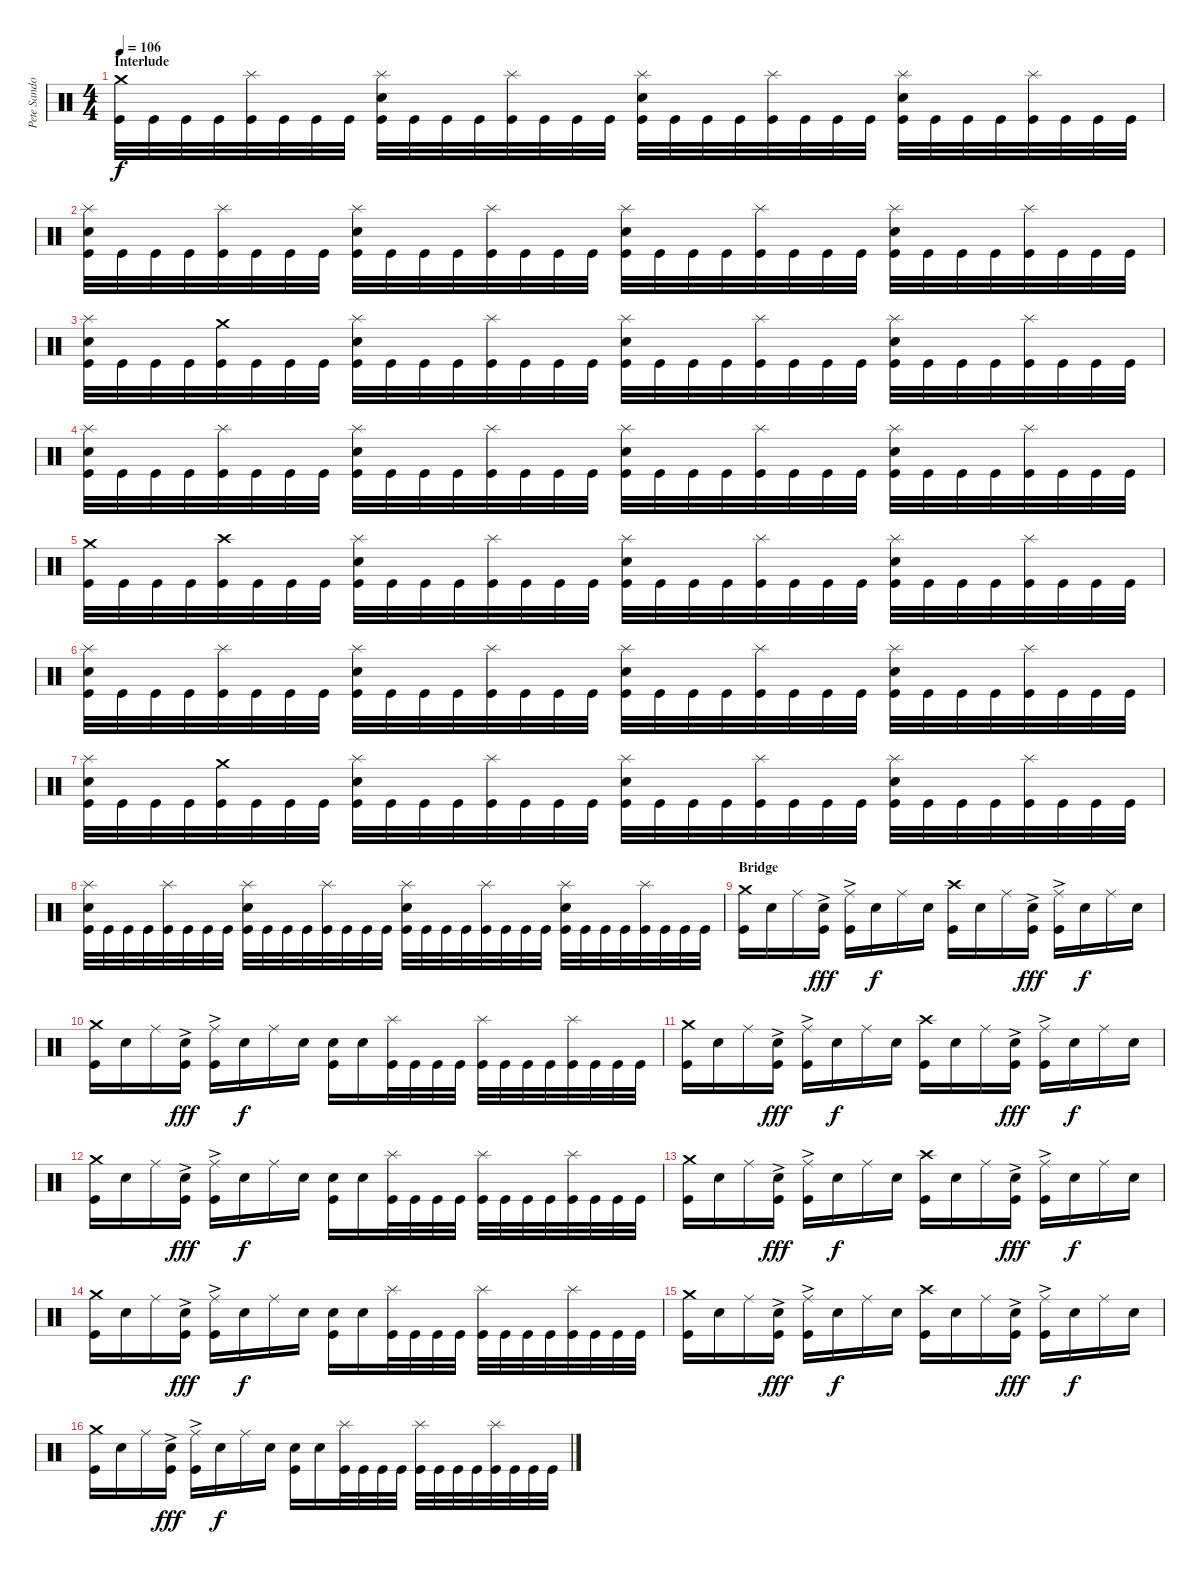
\track ("Pete Sandoval" "Pete Sando") {instrument percussion}
\staff {score}
\articulation defaults
\ts (4 4)
\section ("" "Interlude")
\tempo 106
\clef neutral
\ks c
("Crash medium (hit)" "Kick (hit)").32{dy f} "Kick (hit)".32 "Kick (hit)".32 "Kick (hit)".32 ("Splash (hit)" "Kick (hit)").32 "Kick (hit)".32 "Kick (hit)".32 "Kick (hit)".32 ("Splash (hit)" "Electric Snare (hit)" "Kick (hit)").32 "Kick (hit)".32 "Kick (hit)".32 "Kick (hit)".32 ("Splash (hit)" "Kick (hit)").32 "Kick (hit)".32 "Kick (hit)".32 "Kick (hit)".32 ("Splash (hit)" "Electric Snare (hit)" "Kick (hit)").32 "Kick (hit)".32 "Kick (hit)".32 "Kick (hit)".32 ("Splash (hit)" "Kick (hit)").32 "Kick (hit)".32 "Kick (hit)".32 "Kick (hit)".32 ("Splash (hit)" "Electric Snare (hit)" "Kick (hit)").32 "Kick (hit)".32 "Kick (hit)".32 "Kick (hit)".32 ("Splash (hit)" "Kick (hit)").32 "Kick (hit)".32 "Kick (hit)".32 "Kick (hit)".32 |
("Splash (hit)" "Electric Snare (hit)" "Kick (hit)").32 "Kick (hit)".32 "Kick (hit)".32 "Kick (hit)".32 ("Splash (hit)" "Kick (hit)").32 "Kick (hit)".32 "Kick (hit)".32 "Kick (hit)".32 ("Splash (hit)" "Electric Snare (hit)" "Kick (hit)").32 "Kick (hit)".32 "Kick (hit)".32 "Kick (hit)".32 ("Splash (hit)" "Kick (hit)").32 "Kick (hit)".32 "Kick (hit)".32 "Kick (hit)".32 ("Splash (hit)" "Electric Snare (hit)" "Kick (hit)").32 "Kick (hit)".32 "Kick (hit)".32 "Kick (hit)".32 ("Splash (hit)" "Kick (hit)").32 "Kick (hit)".32 "Kick (hit)".32 "Kick (hit)".32 ("Splash (hit)" "Electric Snare (hit)" "Kick (hit)").32 "Kick (hit)".32 "Kick (hit)".32 "Kick (hit)".32 ("Splash (hit)" "Kick (hit)").32 "Kick (hit)".32 "Kick (hit)".32 "Kick (hit)".32 |
("Splash (hit)" "Electric Snare (hit)" "Kick (hit)").32 "Kick (hit)".32 "Kick (hit)".32 "Kick (hit)".32 ("Crash medium (hit)" "Kick (hit)").32 "Kick (hit)".32 "Kick (hit)".32 "Kick (hit)".32 ("Splash (hit)" "Electric Snare (hit)" "Kick (hit)").32 "Kick (hit)".32 "Kick (hit)".32 "Kick (hit)".32 ("Splash (hit)" "Kick (hit)").32 "Kick (hit)".32 "Kick (hit)".32 "Kick (hit)".32 ("Splash (hit)" "Electric Snare (hit)" "Kick (hit)").32 "Kick (hit)".32 "Kick (hit)".32 "Kick (hit)".32 ("Splash (hit)" "Kick (hit)").32 "Kick (hit)".32 "Kick (hit)".32 "Kick (hit)".32 ("Splash (hit)" "Electric Snare (hit)" "Kick (hit)").32 "Kick (hit)".32 "Kick (hit)".32 "Kick (hit)".32 ("Splash (hit)" "Kick (hit)").32 "Kick (hit)".32 "Kick (hit)".32 "Kick (hit)".32 |
("Splash (hit)" "Electric Snare (hit)" "Kick (hit)").32 "Kick (hit)".32 "Kick (hit)".32 "Kick (hit)".32 ("Splash (hit)" "Kick (hit)").32 "Kick (hit)".32 "Kick (hit)".32 "Kick (hit)".32 ("Splash (hit)" "Electric Snare (hit)" "Kick (hit)").32 "Kick (hit)".32 "Kick (hit)".32 "Kick (hit)".32 ("Splash (hit)" "Kick (hit)").32 "Kick (hit)".32 "Kick (hit)".32 "Kick (hit)".32 ("Splash (hit)" "Electric Snare (hit)" "Kick (hit)").32 "Kick (hit)".32 "Kick (hit)".32 "Kick (hit)".32 ("Splash (hit)" "Kick (hit)").32 "Kick (hit)".32 "Kick (hit)".32 "Kick (hit)".32 ("Splash (hit)" "Electric Snare (hit)" "Kick (hit)").32 "Kick (hit)".32 "Kick (hit)".32 "Kick (hit)".32 ("Splash (hit)" "Kick (hit)").32 "Kick (hit)".32 "Kick (hit)".32 "Kick (hit)".32 |
("Crash medium (hit)" "Kick (hit)").32 "Kick (hit)".32 "Kick (hit)".32 "Kick (hit)".32 ("Crash high (hit)" "Kick (hit)").32 "Kick (hit)".32 "Kick (hit)".32 "Kick (hit)".32 ("Splash (hit)" "Electric Snare (hit)" "Kick (hit)").32 "Kick (hit)".32 "Kick (hit)".32 "Kick (hit)".32 ("Splash (hit)" "Kick (hit)").32 "Kick (hit)".32 "Kick (hit)".32 "Kick (hit)".32 ("Splash (hit)" "Electric Snare (hit)" "Kick (hit)").32 "Kick (hit)".32 "Kick (hit)".32 "Kick (hit)".32 ("Splash (hit)" "Kick (hit)").32 "Kick (hit)".32 "Kick (hit)".32 "Kick (hit)".32 ("Splash (hit)" "Electric Snare (hit)" "Kick (hit)").32 "Kick (hit)".32 "Kick (hit)".32 "Kick (hit)".32 ("Splash (hit)" "Kick (hit)").32 "Kick (hit)".32 "Kick (hit)".32 "Kick (hit)".32 |
("Splash (hit)" "Electric Snare (hit)" "Kick (hit)").32 "Kick (hit)".32 "Kick (hit)".32 "Kick (hit)".32 ("Splash (hit)" "Kick (hit)").32 "Kick (hit)".32 "Kick (hit)".32 "Kick (hit)".32 ("Splash (hit)" "Electric Snare (hit)" "Kick (hit)").32 "Kick (hit)".32 "Kick (hit)".32 "Kick (hit)".32 ("Splash (hit)" "Kick (hit)").32 "Kick (hit)".32 "Kick (hit)".32 "Kick (hit)".32 ("Splash (hit)" "Electric Snare (hit)" "Kick (hit)").32 "Kick (hit)".32 "Kick (hit)".32 "Kick (hit)".32 ("Splash (hit)" "Kick (hit)").32 "Kick (hit)".32 "Kick (hit)".32 "Kick (hit)".32 ("Splash (hit)" "Electric Snare (hit)" "Kick (hit)").32 "Kick (hit)".32 "Kick (hit)".32 "Kick (hit)".32 ("Splash (hit)" "Kick (hit)").32 "Kick (hit)".32 "Kick (hit)".32 "Kick (hit)".32 |
("Splash (hit)" "Electric Snare (hit)" "Kick (hit)").32 "Kick (hit)".32 "Kick (hit)".32 "Kick (hit)".32 ("Crash medium (hit)" "Kick (hit)").32 "Kick (hit)".32 "Kick (hit)".32 "Kick (hit)".32 ("Splash (hit)" "Electric Snare (hit)" "Kick (hit)").32 "Kick (hit)".32 "Kick (hit)".32 "Kick (hit)".32 ("Splash (hit)" "Kick (hit)").32 "Kick (hit)".32 "Kick (hit)".32 "Kick (hit)".32 ("Splash (hit)" "Electric Snare (hit)" "Kick (hit)").32 "Kick (hit)".32 "Kick (hit)".32 "Kick (hit)".32 ("Splash (hit)" "Kick (hit)").32 "Kick (hit)".32 "Kick (hit)".32 "Kick (hit)".32 ("Splash (hit)" "Electric Snare (hit)" "Kick (hit)").32 "Kick (hit)".32 "Kick (hit)".32 "Kick (hit)".32 ("Splash (hit)" "Kick (hit)").32 "Kick (hit)".32 "Kick (hit)".32 "Kick (hit)".32 |
("Splash (hit)" "Electric Snare (hit)" "Kick (hit)").32 "Kick (hit)".32 "Kick (hit)".32 "Kick (hit)".32 ("Splash (hit)" "Kick (hit)").32 "Kick (hit)".32 "Kick (hit)".32 "Kick (hit)".32 ("Splash (hit)" "Electric Snare (hit)" "Kick (hit)").32 "Kick (hit)".32 "Kick (hit)".32 "Kick (hit)".32 ("Splash (hit)" "Kick (hit)").32 "Kick (hit)".32 "Kick (hit)".32 "Kick (hit)".32 ("Splash (hit)" "Electric Snare (hit)" "Kick (hit)").32 "Kick (hit)".32 "Kick (hit)".32 "Kick (hit)".32 ("Splash (hit)" "Kick (hit)").32 "Kick (hit)".32 "Kick (hit)".32 "Kick (hit)".32 ("Splash (hit)" "Electric Snare (hit)" "Kick (hit)").32 "Kick (hit)".32 "Kick (hit)".32 "Kick (hit)".32 ("Splash (hit)" "Kick (hit)").32 "Kick (hit)".32 "Kick (hit)".32 "Kick (hit)".32 |
\section ("" "Bridge")
("Crash medium (hit)" "Kick (hit)").16 "Electric Snare (hit)".16 "Ride (middle)".16 ("Electric Snare (hit)" "Kick (hit)"{ac}).16{dy fff} ("Ride (middle)" "Kick (hit)"{ac}).16 "Electric Snare (hit)".16{dy f} "Ride (middle)".16 "Electric Snare (hit)".16 ("Crash high (hit)" "Kick (hit)").16 "Electric Snare (hit)".16 "Ride (middle)".16 ("Electric Snare (hit)" "Kick (hit)"{ac}).16{dy fff} ("Ride (middle)" "Kick (hit)"{ac}).16 "Electric Snare (hit)".16{dy f} "Ride (middle)".16 "Electric Snare (hit)".16 |
("Crash medium (hit)" "Kick (hit)").16 "Electric Snare (hit)".16 "Ride (middle)".16 ("Electric Snare (hit)" "Kick (hit)"{ac}).16{dy fff} ("Ride (middle)" "Kick (hit)"{ac}).16 "Electric Snare (hit)".16{dy f} "Ride (middle)".16 "Electric Snare (hit)".16 ("Electric Snare (hit)" "Kick (hit)").16 "Electric Snare (hit)".16 ("Splash (hit)" "Kick (hit)").32 "Kick (hit)".32 "Kick (hit)".32 "Kick (hit)".32 ("Splash (hit)" "Kick (hit)").32 "Kick (hit)".32 "Kick (hit)".32 "Kick (hit)".32 ("Splash (hit)" "Kick (hit)").32 "Kick (hit)".32 "Kick (hit)".32 "Kick (hit)".32 |
("Crash medium (hit)" "Kick (hit)").16 "Electric Snare (hit)".16 "Ride (middle)".16 ("Electric Snare (hit)" "Kick (hit)"{ac}).16{dy fff} ("Ride (middle)" "Kick (hit)"{ac}).16 "Electric Snare (hit)".16{dy f} "Ride (middle)".16 "Electric Snare (hit)".16 ("Crash high (hit)" "Kick (hit)").16 "Electric Snare (hit)".16 "Ride (middle)".16 ("Electric Snare (hit)" "Kick (hit)"{ac}).16{dy fff} ("Ride (middle)" "Kick (hit)"{ac}).16 "Electric Snare (hit)".16{dy f} "Ride (middle)".16 "Electric Snare (hit)".16 |
("Crash medium (hit)" "Kick (hit)").16 "Electric Snare (hit)".16 "Ride (middle)".16 ("Electric Snare (hit)" "Kick (hit)"{ac}).16{dy fff} ("Ride (middle)" "Kick (hit)"{ac}).16 "Electric Snare (hit)".16{dy f} "Ride (middle)".16 "Electric Snare (hit)".16 ("Electric Snare (hit)" "Kick (hit)").16 "Electric Snare (hit)".16 ("Splash (hit)" "Kick (hit)").32 "Kick (hit)".32 "Kick (hit)".32 "Kick (hit)".32 ("Splash (hit)" "Kick (hit)").32 "Kick (hit)".32 "Kick (hit)".32 "Kick (hit)".32 ("Splash (hit)" "Kick (hit)").32 "Kick (hit)".32 "Kick (hit)".32 "Kick (hit)".32 |
("Crash medium (hit)" "Kick (hit)").16 "Electric Snare (hit)".16 "Ride (middle)".16 ("Electric Snare (hit)" "Kick (hit)"{ac}).16{dy fff} ("Ride (middle)" "Kick (hit)"{ac}).16 "Electric Snare (hit)".16{dy f} "Ride (middle)".16 "Electric Snare (hit)".16 ("Crash high (hit)" "Kick (hit)").16 "Electric Snare (hit)".16 "Ride (middle)".16 ("Electric Snare (hit)" "Kick (hit)"{ac}).16{dy fff} ("Ride (middle)" "Kick (hit)"{ac}).16 "Electric Snare (hit)".16{dy f} "Ride (middle)".16 "Electric Snare (hit)".16 |
("Crash medium (hit)" "Kick (hit)").16 "Electric Snare (hit)".16 "Ride (middle)".16 ("Electric Snare (hit)" "Kick (hit)"{ac}).16{dy fff} ("Ride (middle)" "Kick (hit)"{ac}).16 "Electric Snare (hit)".16{dy f} "Ride (middle)".16 "Electric Snare (hit)".16 ("Electric Snare (hit)" "Kick (hit)").16 "Electric Snare (hit)".16 ("Splash (hit)" "Kick (hit)").32 "Kick (hit)".32 "Kick (hit)".32 "Kick (hit)".32 ("Splash (hit)" "Kick (hit)").32 "Kick (hit)".32 "Kick (hit)".32 "Kick (hit)".32 ("Splash (hit)" "Kick (hit)").32 "Kick (hit)".32 "Kick (hit)".32 "Kick (hit)".32 |
("Crash medium (hit)" "Kick (hit)").16 "Electric Snare (hit)".16 "Ride (middle)".16 ("Electric Snare (hit)" "Kick (hit)"{ac}).16{dy fff} ("Ride (middle)" "Kick (hit)"{ac}).16 "Electric Snare (hit)".16{dy f} "Ride (middle)".16 "Electric Snare (hit)".16 ("Crash high (hit)" "Kick (hit)").16 "Electric Snare (hit)".16 "Ride (middle)".16 ("Electric Snare (hit)" "Kick (hit)"{ac}).16{dy fff} ("Ride (middle)" "Kick (hit)"{ac}).16 "Electric Snare (hit)".16{dy f} "Ride (middle)".16 "Electric Snare (hit)".16 |
("Crash medium (hit)" "Kick (hit)").16 "Electric Snare (hit)".16 "Ride (middle)".16 ("Electric Snare (hit)" "Kick (hit)"{ac}).16{dy fff} ("Ride (middle)" "Kick (hit)"{ac}).16 "Electric Snare (hit)".16{dy f} "Ride (middle)".16 "Electric Snare (hit)".16 ("Electric Snare (hit)" "Kick (hit)").16 "Electric Snare (hit)".16 ("Splash (hit)" "Kick (hit)").32 "Kick (hit)".32 "Kick (hit)".32 "Kick (hit)".32 ("Splash (hit)" "Kick (hit)").32 "Kick (hit)".32 "Kick (hit)".32 "Kick (hit)".32 ("Splash (hit)" "Kick (hit)").32 "Kick (hit)".32 "Kick (hit)".32 "Kick (hit)".32
